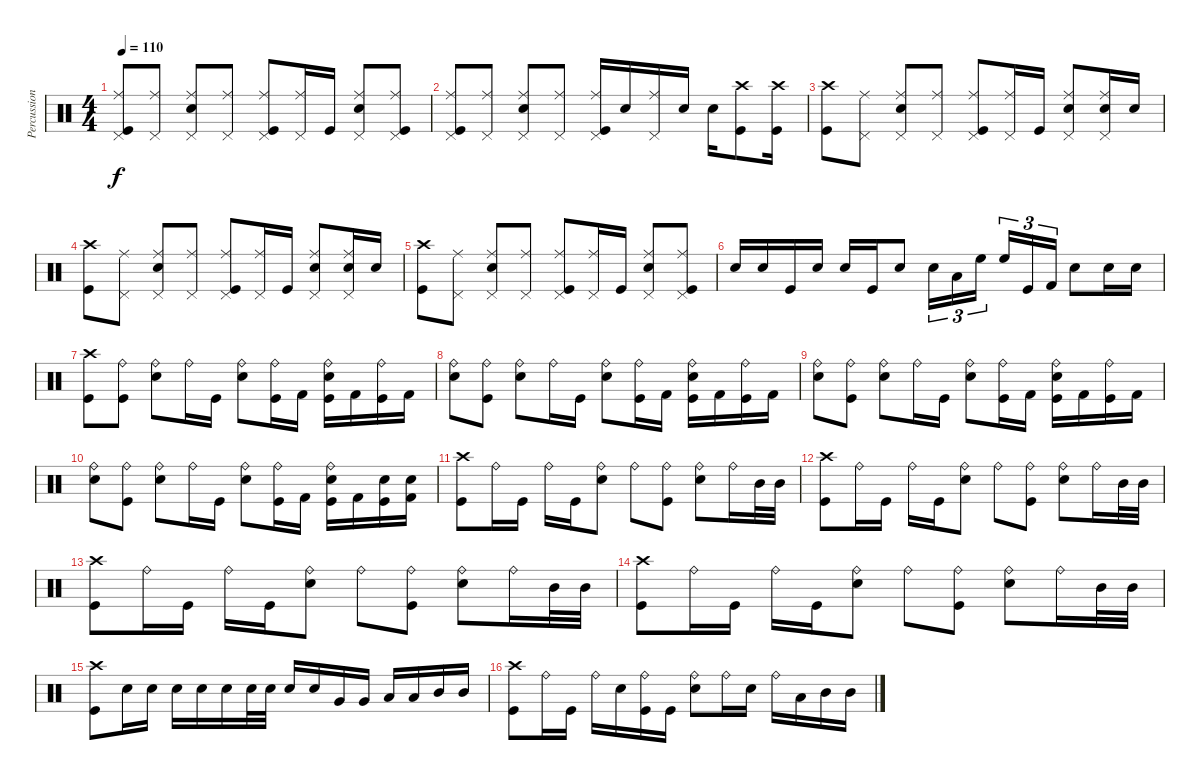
\track ("Percussion" "Percussion") {instrument percussion}
\staff {score}
\articulation defaults
\ts (4 4)
\tempo 110
\clef neutral
\ks c
("Pedal Hi-Hat (hit)" "Ride (middle)" "Kick (hit)").8{dy f} ("Pedal Hi-Hat (hit)" "Ride (middle)").8 ("Pedal Hi-Hat (hit)" "Ride (middle)" "Snare (hit) 2").8 ("Pedal Hi-Hat (hit)" "Ride (middle)").8 ("Pedal Hi-Hat (hit)" "Ride (middle)" "Kick (hit)").8 ("Pedal Hi-Hat (hit)" "Ride (middle)").16 "Kick (hit)".16 ("Pedal Hi-Hat (hit)" "Ride (middle)" "Snare (hit) 2").8 ("Pedal Hi-Hat (hit)" "Ride (middle)" "Kick (hit)").8 |
("Pedal Hi-Hat (hit)" "Ride (middle)" "Kick (hit)").8 ("Pedal Hi-Hat (hit)" "Ride (middle)").8 ("Pedal Hi-Hat (hit)" "Ride (middle)" "Snare (hit) 2").8 ("Pedal Hi-Hat (hit)" "Ride (middle)").8 ("Pedal Hi-Hat (hit)" "Ride (middle)" "Kick (hit)").16 "Snare (hit) 2".16 ("Pedal Hi-Hat (hit)" "Ride (middle)").16 "Snare (hit) 2".16 "Snare (hit) 2".16 ("Crash high (hit)" "Kick (hit)").8 ("Crash high (hit)" "Kick (hit)").16 |
("Crash high (hit)" "Kick (hit)").8 ("Pedal Hi-Hat (hit)" "Ride (middle)").8 ("Pedal Hi-Hat (hit)" "Ride (middle)" "Snare (hit) 2").8 ("Pedal Hi-Hat (hit)" "Ride (middle)").8 ("Pedal Hi-Hat (hit)" "Ride (middle)" "Kick (hit)").8 ("Pedal Hi-Hat (hit)" "Ride (middle)").16 "Kick (hit)".16 ("Pedal Hi-Hat (hit)" "Ride (middle)" "Snare (hit) 2").8 ("Pedal Hi-Hat (hit)" "Ride (middle)" "Snare (hit) 2").16 "Snare (hit) 2".16 |
("Crash high (hit)" "Kick (hit)").8 ("Pedal Hi-Hat (hit)" "Ride (middle)").8 ("Pedal Hi-Hat (hit)" "Ride (middle)" "Snare (hit) 2").8 ("Pedal Hi-Hat (hit)" "Ride (middle)").8 ("Pedal Hi-Hat (hit)" "Ride (middle)" "Kick (hit)").8 ("Pedal Hi-Hat (hit)" "Ride (middle)").16 "Kick (hit)".16 ("Pedal Hi-Hat (hit)" "Ride (middle)" "Snare (hit) 2").8 ("Pedal Hi-Hat (hit)" "Ride (middle)" "Snare (hit) 2").16 "Snare (hit) 2".16 |
("Crash high (hit)" "Kick (hit)").8 ("Pedal Hi-Hat (hit)" "Ride (middle)").8 ("Pedal Hi-Hat (hit)" "Ride (middle)" "Snare (hit) 2").8 ("Pedal Hi-Hat (hit)" "Ride (middle)").8 ("Pedal Hi-Hat (hit)" "Ride (middle)" "Kick (hit)").8 ("Pedal Hi-Hat (hit)" "Ride (middle)").16 "Kick (hit)".16 ("Pedal Hi-Hat (hit)" "Ride (middle)" "Snare (hit) 2").8 ("Pedal Hi-Hat (hit)" "Ride (middle)" "Kick (hit)").8 |
"Electric Snare (hit)".16 "Snare (hit) 2".16 "Kick (hit)".16 "Electric Snare (hit)".16 "Snare (hit) 2".16 "Kick (hit)".16 "Electric Snare (hit)".8 "Snare (hit) 2".16{tu (3 2)} "Low Tom (hit)".16{tu (3 2)} "High Floor Tom (hit)".16{tu (3 2)} "High Floor Tom (hit)".16{tu (3 2)} "Kick (hit)".16{tu (3 2)} "Kick (hit) 2".16{tu (3 2)} "Electric Snare (hit)".8 "Snare (hit) 2".16 "Snare (hit) 2".16 |
("Crash high (hit)" "Kick (hit)").8 ("Ride (bell)" "Kick (hit)").8 ("Ride (bell)" "Snare (hit) 2").8 "Ride (bell)".16 "Kick (hit)".16 ("Ride (bell)" "Snare (hit) 2").8 ("Ride (bell)" "Kick (hit)").16 "Kick (hit) 2".16 ("Ride (bell)" "Snare (hit) 2" "Kick (hit)").16 "Kick (hit) 2".16 ("Ride (bell)" "Kick (hit)").16 "Kick (hit) 2".16 |
("Snare (hit) 2" "Ride (bell)").8 ("Ride (bell)" "Kick (hit)").8 ("Ride (bell)" "Snare (hit) 2").8 "Ride (bell)".16 "Kick (hit)".16 ("Ride (bell)" "Snare (hit) 2").8 ("Ride (bell)" "Kick (hit)").16 "Kick (hit) 2".16 ("Ride (bell)" "Snare (hit) 2" "Kick (hit)").16 "Kick (hit) 2".16 ("Ride (bell)" "Kick (hit)").16 "Kick (hit) 2".16 |
("Snare (hit) 2" "Ride (bell)").8 ("Ride (bell)" "Kick (hit)").8 ("Ride (bell)" "Snare (hit) 2").8 "Ride (bell)".16 "Kick (hit)".16 ("Ride (bell)" "Snare (hit) 2").8 ("Ride (bell)" "Kick (hit)").16 "Kick (hit) 2".16 ("Ride (bell)" "Snare (hit) 2" "Kick (hit)").16 "Kick (hit) 2".16 ("Ride (bell)" "Kick (hit)").16 "Kick (hit) 2".16 |
("Snare (hit) 2" "Ride (bell)").8 ("Ride (bell)" "Kick (hit)").8 ("Ride (bell)" "Snare (hit) 2").8 "Ride (bell)".16 "Kick (hit)".16 ("Ride (bell)" "Snare (hit) 2").8 ("Ride (bell)" "Kick (hit)").16 "Kick (hit) 2".16 ("Ride (bell)" "Snare (hit) 2" "Kick (hit)").16 "Kick (hit) 2".16 ("Snare (hit) 2" "Kick (hit)").16 ("Snare (hit) 2" "Kick (hit) 2").16 |
("Crash high (hit)" "Kick (hit)").8 "Ride (bell)".16 "Kick (hit)".16 "Ride (bell)".16 "Kick (hit)".16 ("Ride (bell)" "Snare (hit) 2").8 "Ride (bell)".8 ("Ride (bell)" "Kick (hit)").8 ("Ride (bell)" "Snare (hit) 2").8 "Ride (bell)".16 "Mid Tom (hit)".32 "Mid Tom (hit)".32 |
("Crash high (hit)" "Kick (hit)").8 "Ride (bell)".16 "Kick (hit)".16 "Ride (bell)".16 "Kick (hit)".16 ("Ride (bell)" "Snare (hit) 2").8 "Ride (bell)".8 ("Ride (bell)" "Kick (hit)").8 ("Ride (bell)" "Snare (hit) 2").8 "Ride (bell)".16 "Mid Tom (hit)".32 "Mid Tom (hit)".32 |
("Crash high (hit)" "Kick (hit)").8 "Ride (bell)".16 "Kick (hit)".16 "Ride (bell)".16 "Kick (hit)".16 ("Ride (bell)" "Snare (hit) 2").8 "Ride (bell)".8 ("Ride (bell)" "Kick (hit)").8 ("Ride (bell)" "Snare (hit) 2").8 "Ride (bell)".16 "Mid Tom (hit)".32 "Mid Tom (hit)".32 |
("Crash high (hit)" "Kick (hit)").8 "Ride (bell)".16 "Kick (hit)".16 "Ride (bell)".16 "Kick (hit)".16 ("Ride (bell)" "Snare (hit) 2").8 "Ride (bell)".8 ("Ride (bell)" "Kick (hit)").8 ("Ride (bell)" "Snare (hit) 2").8 "Ride (bell)".16 "Mid Tom (hit)".32 "Mid Tom (hit)".32 |
("Kick (hit)" "Crash high (hit)").8 "Snare (hit) 2".16 "Snare (hit) 2".16 "Snare (hit) 2".16 "Snare (hit) 2".16 "Snare (hit) 2".16 "Snare (hit) 2".32 "Snare (hit) 2".32 "Snare (hit) 2".16 "Snare (hit) 2".16 "Very Low Tom (hit)".16 "Very Low Tom (hit)".16 "Low Tom (hit)".16 "Low Tom (hit)".16 "Mid Tom (hit)".16 "Mid Tom (hit)".16 |
("Crash high (hit)" "Kick (hit)").8 "Ride (bell)".16 "Kick (hit)".16 "Ride (bell)".16 "Electric Snare (hit)".16 ("Ride (bell)" "Kick (hit)").16 "Kick (hit)".16 ("Ride (bell)" "Snare (hit) 2").8 "Ride (bell)".16 "Electric Snare (hit)".16 "Ride (bell)".16 "Low Tom (hit)".16 "Mid Tom (hit)".16 "Mid Tom (hit)".16
